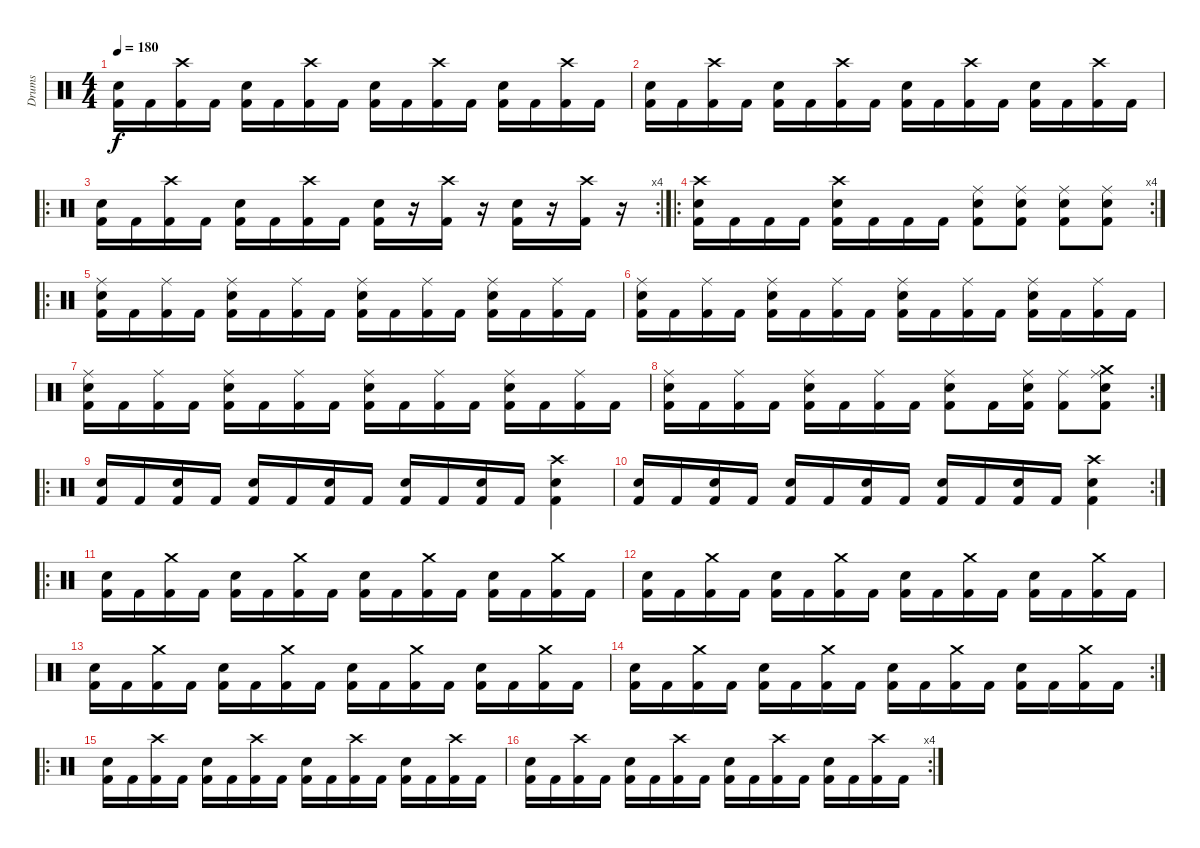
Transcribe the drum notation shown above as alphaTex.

\track ("Drums" "Drums") {instrument percussion}
\staff {score}
\articulation defaults
\ts (4 4)
\tempo 180
\clef neutral
\ks c
("Electric Snare (hit)" "Kick (hit) 2").16{dy f} "Kick (hit) 2".16 ("Crash high (hit)" "Kick (hit) 2").16 "Kick (hit) 2".16 ("Electric Snare (hit)" "Kick (hit) 2").16 "Kick (hit) 2".16 ("Crash high (hit)" "Kick (hit) 2").16 "Kick (hit) 2".16 ("Electric Snare (hit)" "Kick (hit) 2").16 "Kick (hit) 2".16 ("Crash high (hit)" "Kick (hit) 2").16 "Kick (hit) 2".16 ("Electric Snare (hit)" "Kick (hit) 2").16 "Kick (hit) 2".16 ("Crash high (hit)" "Kick (hit) 2").16 "Kick (hit) 2".16 |
("Electric Snare (hit)" "Kick (hit) 2").16 "Kick (hit) 2".16 ("Crash high (hit)" "Kick (hit) 2").16 "Kick (hit) 2".16 ("Electric Snare (hit)" "Kick (hit) 2").16 "Kick (hit) 2".16 ("Crash high (hit)" "Kick (hit) 2").16 "Kick (hit) 2".16 ("Electric Snare (hit)" "Kick (hit) 2").16 "Kick (hit) 2".16 ("Crash high (hit)" "Kick (hit) 2").16 "Kick (hit) 2".16 ("Electric Snare (hit)" "Kick (hit) 2").16 "Kick (hit) 2".16 ("Crash high (hit)" "Kick (hit) 2").16 "Kick (hit) 2".16 |
\ro
\rc 4
("Electric Snare (hit)" "Kick (hit) 2").16 "Kick (hit) 2".16 ("Crash high (hit)" "Kick (hit) 2").16 "Kick (hit) 2".16 ("Electric Snare (hit)" "Kick (hit) 2").16 "Kick (hit) 2".16 ("Crash high (hit)" "Kick (hit) 2").16 "Kick (hit) 2".16 ("Electric Snare (hit)" "Kick (hit) 2").16 r.16 ("Crash high (hit)" "Kick (hit) 2").16 r.16 ("Electric Snare (hit)" "Kick (hit) 2").16 r.16 ("Crash high (hit)" "Kick (hit) 2").16 r.16 |
\ro
\rc 4
("Electric Snare (hit)" "Crash high (hit)" "Kick (hit) 2").16 "Kick (hit) 2".16 "Kick (hit) 2".16 "Kick (hit) 2".16 ("Electric Snare (hit)" "Crash high (hit)" "Kick (hit) 2").16 "Kick (hit) 2".16 "Kick (hit) 2".16 "Kick (hit) 2".16 ("Electric Snare (hit)" "Ride (middle)" "Kick (hit) 2").8 ("Electric Snare (hit)" "Ride (middle)" "Kick (hit) 2").8 ("Electric Snare (hit)" "Ride (middle)" "Kick (hit) 2").8 ("Electric Snare (hit)" "Ride (middle)" "Kick (hit) 2").8 |
\ro
("Electric Snare (hit)" "Ride (middle)" "Kick (hit) 2").16 "Kick (hit) 2".16 ("Ride (middle)" "Kick (hit) 2").16 "Kick (hit) 2".16 ("Electric Snare (hit)" "Ride (middle)" "Kick (hit) 2").16 "Kick (hit) 2".16 ("Ride (middle)" "Kick (hit) 2").16 "Kick (hit) 2".16 ("Electric Snare (hit)" "Ride (middle)" "Kick (hit) 2").16 "Kick (hit) 2".16 ("Ride (middle)" "Kick (hit) 2").16 "Kick (hit) 2".16 ("Electric Snare (hit)" "Ride (middle)" "Kick (hit) 2").16 "Kick (hit) 2".16 ("Ride (middle)" "Kick (hit) 2").16 "Kick (hit) 2".16 |
("Electric Snare (hit)" "Ride (middle)" "Kick (hit) 2").16 "Kick (hit) 2".16 ("Ride (middle)" "Kick (hit) 2").16 "Kick (hit) 2".16 ("Electric Snare (hit)" "Ride (middle)" "Kick (hit) 2").16 "Kick (hit) 2".16 ("Ride (middle)" "Kick (hit) 2").16 "Kick (hit) 2".16 ("Electric Snare (hit)" "Ride (middle)" "Kick (hit) 2").16 "Kick (hit) 2".16 ("Ride (middle)" "Kick (hit) 2").16 "Kick (hit) 2".16 ("Electric Snare (hit)" "Ride (middle)" "Kick (hit) 2").16 "Kick (hit) 2".16 ("Ride (middle)" "Kick (hit) 2").16 "Kick (hit) 2".16 |
("Electric Snare (hit)" "Ride (middle)" "Kick (hit) 2").16 "Kick (hit) 2".16 ("Ride (middle)" "Kick (hit) 2").16 "Kick (hit) 2".16 ("Electric Snare (hit)" "Ride (middle)" "Kick (hit) 2").16 "Kick (hit) 2".16 ("Ride (middle)" "Kick (hit) 2").16 "Kick (hit) 2".16 ("Electric Snare (hit)" "Ride (middle)" "Kick (hit) 2").16 "Kick (hit) 2".16 ("Ride (middle)" "Kick (hit) 2").16 "Kick (hit) 2".16 ("Electric Snare (hit)" "Ride (middle)" "Kick (hit) 2").16 "Kick (hit) 2".16 ("Ride (middle)" "Kick (hit) 2").16 "Kick (hit) 2".16 |
\rc 2
("Electric Snare (hit)" "Ride (middle)" "Kick (hit) 2").16 "Kick (hit) 2".16 ("Ride (middle)" "Kick (hit) 2").16 "Kick (hit) 2".16 ("Electric Snare (hit)" "Ride (middle)" "Kick (hit) 2").16 "Kick (hit) 2".16 ("Ride (middle)" "Kick (hit) 2").16 "Kick (hit) 2".16 ("Electric Snare (hit)" "Ride (middle)" "Kick (hit) 2").8 "Kick (hit) 2".16 ("Electric Snare (hit)" "Ride (middle)" "Kick (hit) 2").16 ("Ride (middle)" "Kick (hit) 2").8 ("Electric Snare (hit)" "Ride (middle)" "Crash medium (hit)" "Kick (hit) 2").8 |
\ro
("Electric Snare (hit)" "Kick (hit) 2").16 "Kick (hit) 2".16 ("Electric Snare (hit)" "Kick (hit) 2").16 "Kick (hit) 2".16 ("Electric Snare (hit)" "Kick (hit) 2").16 "Kick (hit) 2".16 ("Electric Snare (hit)" "Kick (hit) 2").16 "Kick (hit) 2".16 ("Electric Snare (hit)" "Kick (hit) 2").16 "Kick (hit) 2".16 ("Electric Snare (hit)" "Kick (hit) 2").16 "Kick (hit) 2".16 ("Electric Snare (hit)" "Crash high (hit)" "Kick (hit) 2").4 |
\rc 2
("Electric Snare (hit)" "Kick (hit) 2").16 "Kick (hit) 2".16 ("Electric Snare (hit)" "Kick (hit) 2").16 "Kick (hit) 2".16 ("Electric Snare (hit)" "Kick (hit) 2").16 "Kick (hit) 2".16 ("Electric Snare (hit)" "Kick (hit) 2").16 "Kick (hit) 2".16 ("Electric Snare (hit)" "Kick (hit) 2").16 "Kick (hit) 2".16 ("Electric Snare (hit)" "Kick (hit) 2").16 "Kick (hit) 2".16 ("Electric Snare (hit)" "Crash high (hit)" "Kick (hit) 2").4 |
\ro
("Electric Snare (hit)" "Kick (hit) 2").16 "Kick (hit) 2".16 ("Crash medium (hit)" "Kick (hit) 2").16 "Kick (hit) 2".16 ("Electric Snare (hit)" "Kick (hit) 2").16 "Kick (hit) 2".16 ("Crash medium (hit)" "Kick (hit) 2").16 "Kick (hit) 2".16 ("Electric Snare (hit)" "Kick (hit) 2").16 "Kick (hit) 2".16 ("Crash medium (hit)" "Kick (hit) 2").16 "Kick (hit) 2".16 ("Electric Snare (hit)" "Kick (hit) 2").16 "Kick (hit) 2".16 ("Crash medium (hit)" "Kick (hit) 2").16 "Kick (hit) 2".16 |
("Electric Snare (hit)" "Kick (hit) 2").16 "Kick (hit) 2".16 ("Crash medium (hit)" "Kick (hit) 2").16 "Kick (hit) 2".16 ("Electric Snare (hit)" "Kick (hit) 2").16 "Kick (hit) 2".16 ("Crash medium (hit)" "Kick (hit) 2").16 "Kick (hit) 2".16 ("Electric Snare (hit)" "Kick (hit) 2").16 "Kick (hit) 2".16 ("Crash medium (hit)" "Kick (hit) 2").16 "Kick (hit) 2".16 ("Electric Snare (hit)" "Kick (hit) 2").16 "Kick (hit) 2".16 ("Crash medium (hit)" "Kick (hit) 2").16 "Kick (hit) 2".16 |
("Electric Snare (hit)" "Kick (hit) 2").16 "Kick (hit) 2".16 ("Crash medium (hit)" "Kick (hit) 2").16 "Kick (hit) 2".16 ("Electric Snare (hit)" "Kick (hit) 2").16 "Kick (hit) 2".16 ("Crash medium (hit)" "Kick (hit) 2").16 "Kick (hit) 2".16 ("Electric Snare (hit)" "Kick (hit) 2").16 "Kick (hit) 2".16 ("Crash medium (hit)" "Kick (hit) 2").16 "Kick (hit) 2".16 ("Electric Snare (hit)" "Kick (hit) 2").16 "Kick (hit) 2".16 ("Crash medium (hit)" "Kick (hit) 2").16 "Kick (hit) 2".16 |
\rc 2
("Electric Snare (hit)" "Kick (hit) 2").16 "Kick (hit) 2".16 ("Crash medium (hit)" "Kick (hit) 2").16 "Kick (hit) 2".16 ("Electric Snare (hit)" "Kick (hit) 2").16 "Kick (hit) 2".16 ("Crash medium (hit)" "Kick (hit) 2").16 "Kick (hit) 2".16 ("Electric Snare (hit)" "Kick (hit) 2").16 "Kick (hit) 2".16 ("Crash medium (hit)" "Kick (hit) 2").16 "Kick (hit) 2".16 ("Electric Snare (hit)" "Kick (hit) 2").16 "Kick (hit) 2".16 ("Crash medium (hit)" "Kick (hit) 2").16 "Kick (hit) 2".16 |
\ro
("Electric Snare (hit)" "Kick (hit) 2").16 "Kick (hit) 2".16 ("Crash high (hit)" "Kick (hit) 2").16 "Kick (hit) 2".16 ("Electric Snare (hit)" "Kick (hit) 2").16 "Kick (hit) 2".16 ("Crash high (hit)" "Kick (hit) 2").16 "Kick (hit) 2".16 ("Electric Snare (hit)" "Kick (hit) 2").16 "Kick (hit) 2".16 ("Crash high (hit)" "Kick (hit) 2").16 "Kick (hit) 2".16 ("Electric Snare (hit)" "Kick (hit) 2").16 "Kick (hit) 2".16 ("Crash high (hit)" "Kick (hit) 2").16 "Kick (hit) 2".16 |
\rc 4
("Electric Snare (hit)" "Kick (hit) 2").16 "Kick (hit) 2".16 ("Crash high (hit)" "Kick (hit) 2").16 "Kick (hit) 2".16 ("Electric Snare (hit)" "Kick (hit) 2").16 "Kick (hit) 2".16 ("Crash high (hit)" "Kick (hit) 2").16 "Kick (hit) 2".16 ("Electric Snare (hit)" "Kick (hit) 2").16 "Kick (hit) 2".16 ("Crash high (hit)" "Kick (hit) 2").16 "Kick (hit) 2".16 ("Electric Snare (hit)" "Kick (hit) 2").16 "Kick (hit) 2".16 ("Crash high (hit)" "Kick (hit) 2").16 "Kick (hit) 2".16
